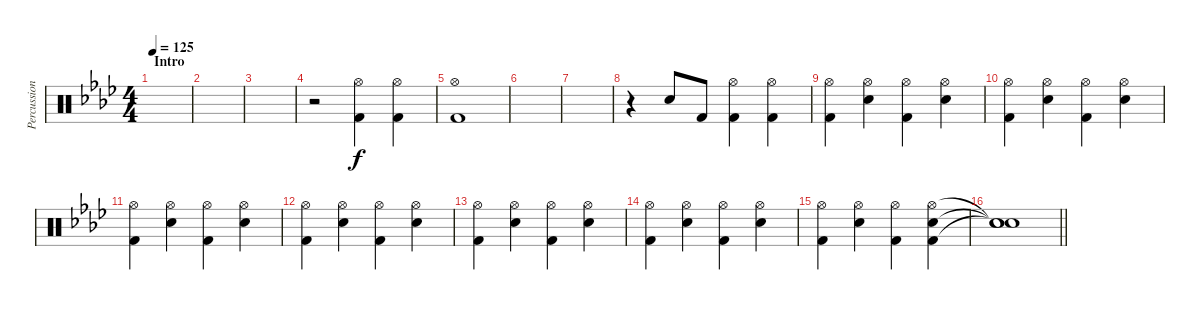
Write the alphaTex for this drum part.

\track ("Percussion" "Percussion") {instrument percussion}
\staff {score}
\articulation defaults
\ts (4 4)
\section ("" "Intro")
\tempo 125
\clef neutral
\ks fminor
|
|
|
r.2 ("Hi-Hat (open)" "Kick (hit) 2").4 ("Hi-Hat (open)" "Kick (hit) 2").4 |
("Hi-Hat (open)" "Kick (hit) 2").1 |
|
|
r.4 "Snare (hit) 2".8 "Kick (hit) 2".8 ("Hi-Hat (open)" "Kick (hit) 2").4 ("Hi-Hat (open)" "Kick (hit) 2").4 |
("Hi-Hat (open)" "Kick (hit) 2").4 ("Hi-Hat (open)" "Snare (hit) 2").4 ("Hi-Hat (open)" "Kick (hit) 2").4 ("Hi-Hat (open)" "Snare (hit) 2").4 |
("Hi-Hat (open)" "Kick (hit) 2").4 ("Hi-Hat (open)" "Snare (hit) 2").4 ("Hi-Hat (open)" "Kick (hit) 2").4 ("Hi-Hat (open)" "Snare (hit) 2").4 |
("Hi-Hat (open)" "Kick (hit) 2").4 ("Hi-Hat (open)" "Snare (hit) 2").4 ("Hi-Hat (open)" "Kick (hit) 2").4 ("Hi-Hat (open)" "Snare (hit) 2").4 |
("Hi-Hat (open)" "Kick (hit) 2").4 ("Hi-Hat (open)" "Snare (hit) 2").4 ("Hi-Hat (open)" "Kick (hit) 2").4 ("Hi-Hat (open)" "Snare (hit) 2").4 |
("Hi-Hat (open)" "Kick (hit) 2").4 ("Hi-Hat (open)" "Snare (hit) 2").4 ("Hi-Hat (open)" "Kick (hit) 2").4 ("Hi-Hat (open)" "Snare (hit) 2").4 |
("Hi-Hat (open)" "Kick (hit) 2").4 ("Hi-Hat (open)" "Snare (hit) 2").4 ("Hi-Hat (open)" "Kick (hit) 2").4 ("Hi-Hat (open)" "Snare (hit) 2").4 |
("Hi-Hat (open)" "Kick (hit) 2").4 ("Hi-Hat (open)" "Snare (hit) 2").4 ("Hi-Hat (open)" "Kick (hit) 2").4 ("Hi-Hat (open)" "Snare (hit) 2" "Kick (hit) 2").4 |
\barLineRight lightlight
("Snare (hit)"{t} "Snare (hit)"{t} "Snare (hit)"{t}).1
